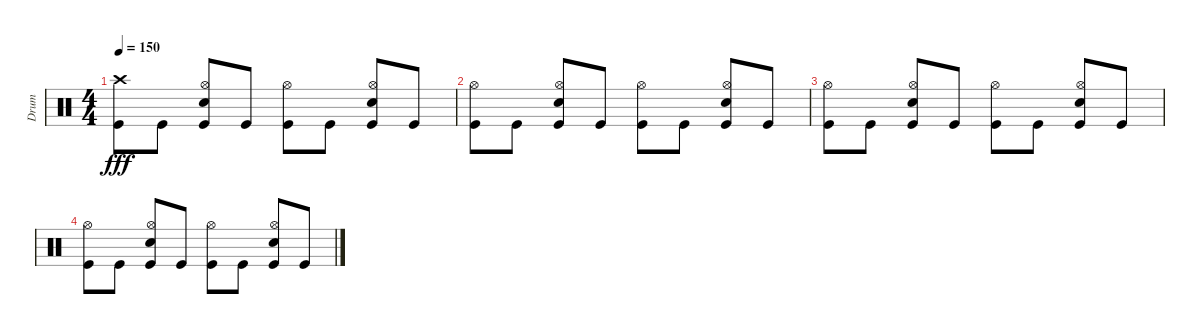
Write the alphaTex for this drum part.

\track ("Drum" "Drum") {instrument percussion}
\staff {score}
\articulation defaults
\ts (4 4)
\tempo 150
\clef neutral
\ks c
("Crash high (hit)" "Kick (hit)").8{dy fff volume 0} "Kick (hit)".8 ("Hi-Hat (open)" "Snare (hit) 2" "Kick (hit)").8 "Kick (hit)".8 ("Hi-Hat (open)" "Kick (hit)").8 "Kick (hit)".8 ("Hi-Hat (open)" "Snare (hit) 2" "Kick (hit)").8 "Kick (hit)".8 |
("Hi-Hat (open)" "Kick (hit)").8 "Kick (hit)".8 ("Hi-Hat (open)" "Snare (hit) 2" "Kick (hit)").8 "Kick (hit)".8 ("Hi-Hat (open)" "Kick (hit)").8 "Kick (hit)".8 ("Hi-Hat (open)" "Snare (hit) 2" "Kick (hit)").8 "Kick (hit)".8 |
("Hi-Hat (open)" "Kick (hit)").8 "Kick (hit)".8 ("Hi-Hat (open)" "Snare (hit) 2" "Kick (hit)").8 "Kick (hit)".8 ("Hi-Hat (open)" "Kick (hit)").8 "Kick (hit)".8 ("Hi-Hat (open)" "Snare (hit) 2" "Kick (hit)").8 "Kick (hit)".8 |
("Hi-Hat (open)" "Kick (hit)").8 "Kick (hit)".8 ("Hi-Hat (open)" "Snare (hit) 2" "Kick (hit)").8 "Kick (hit)".8 ("Hi-Hat (open)" "Kick (hit)").8 "Kick (hit)".8 ("Hi-Hat (open)" "Snare (hit) 2" "Kick (hit)").8 "Kick (hit)".8
